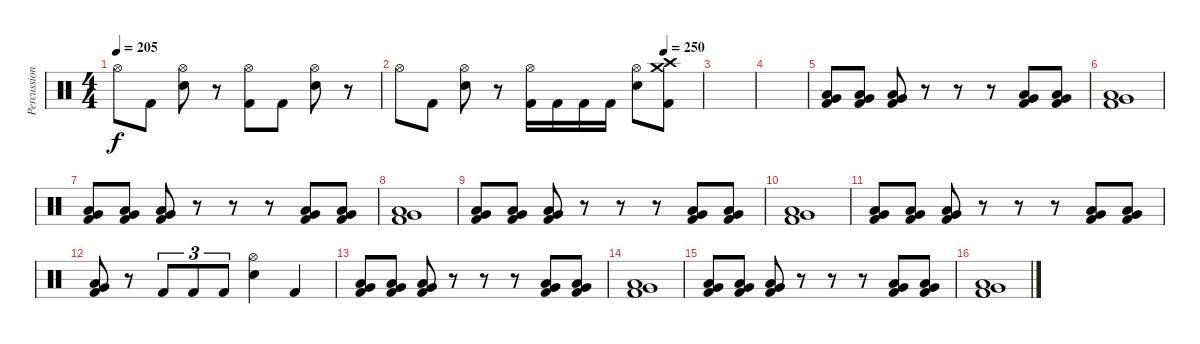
\track ("Percussion" "Percussion") {instrument percussion}
\staff {score}
\articulation defaults
\ts (4 4)
\tempo 205
\clef neutral
\ks c "Hi-Hat (open)".8{dy f} "Kick (hit) 2".8
("Hi-Hat (open)" "Electric Snare (hit)").8 r.8 ("Hi-Hat (open)" "Kick (hit) 2").8 "Kick (hit) 2".8 ("Hi-Hat (open)" "Electric Snare (hit)").8 r.8 |
\tempo (250 0.875)
"Hi-Hat (open)".8 "Kick (hit) 2".8 ("Hi-Hat (open)" "Electric Snare (hit)").8 r.8 ("Hi-Hat (open)" "Kick (hit) 2").16 "Kick (hit) 2".16 "Kick (hit) 2".16 "Kick (hit) 2".16 ("Hi-Hat (open)" "Electric Snare (hit)").8 ("Crash high (hit)" "Crash medium (hit)" "Kick (hit) 2").8 |
|
|
("Low Tom (hit)" "Very Low Tom (hit)" "Kick (hit) 2").8 ("Low Tom (hit)" "Very Low Tom (hit)" "Kick (hit) 2").8 ("Low Tom (hit)" "Very Low Tom (hit)" "Kick (hit) 2").8 r.8 r.8 r.8 ("Low Tom (hit)" "Very Low Tom (hit)" "Kick (hit) 2").8 ("Low Tom (hit)" "Very Low Tom (hit)" "Kick (hit) 2").8 |
("Low Tom (hit)" "Very Low Tom (hit)" "Kick (hit) 2").1 |
("Low Tom (hit)" "Very Low Tom (hit)" "Kick (hit) 2").8 ("Low Tom (hit)" "Very Low Tom (hit)" "Kick (hit) 2").8 ("Low Tom (hit)" "Very Low Tom (hit)" "Kick (hit) 2").8 r.8 r.8 r.8 ("Low Tom (hit)" "Very Low Tom (hit)" "Kick (hit) 2").8 ("Low Tom (hit)" "Very Low Tom (hit)" "Kick (hit) 2").8 |
("Low Tom (hit)" "Very Low Tom (hit)" "Kick (hit) 2").1 |
("Low Tom (hit)" "Very Low Tom (hit)" "Kick (hit) 2").8 ("Low Tom (hit)" "Very Low Tom (hit)" "Kick (hit) 2").8 ("Low Tom (hit)" "Very Low Tom (hit)" "Kick (hit) 2").8 r.8 r.8 r.8 ("Low Tom (hit)" "Very Low Tom (hit)" "Kick (hit) 2").8 ("Low Tom (hit)" "Very Low Tom (hit)" "Kick (hit) 2").8 |
("Low Tom (hit)" "Very Low Tom (hit)" "Kick (hit) 2").1 |
("Low Tom (hit)" "Very Low Tom (hit)" "Kick (hit) 2").8 ("Low Tom (hit)" "Very Low Tom (hit)" "Kick (hit) 2").8 ("Low Tom (hit)" "Very Low Tom (hit)" "Kick (hit) 2").8 r.8 r.8 r.8 ("Low Tom (hit)" "Very Low Tom (hit)" "Kick (hit) 2").8 ("Low Tom (hit)" "Very Low Tom (hit)" "Kick (hit) 2").8 |
("Low Tom (hit)" "Very Low Tom (hit)" "Kick (hit) 2").8 r.8 "Kick (hit) 2".8{tu (3 2)} "Kick (hit) 2".8{tu (3 2)} "Kick (hit) 2".8{tu (3 2)} ("Hi-Hat (open)" "Electric Snare (hit)").4 "Kick (hit) 2".4 |
("Low Tom (hit)" "Very Low Tom (hit)" "Kick (hit) 2").8 ("Low Tom (hit)" "Very Low Tom (hit)" "Kick (hit) 2").8 ("Low Tom (hit)" "Very Low Tom (hit)" "Kick (hit) 2").8 r.8 r.8 r.8 ("Low Tom (hit)" "Very Low Tom (hit)" "Kick (hit) 2").8 ("Low Tom (hit)" "Very Low Tom (hit)" "Kick (hit) 2").8 |
("Low Tom (hit)" "Very Low Tom (hit)" "Kick (hit) 2").1 |
("Low Tom (hit)" "Very Low Tom (hit)" "Kick (hit) 2").8 ("Low Tom (hit)" "Very Low Tom (hit)" "Kick (hit) 2").8 ("Low Tom (hit)" "Very Low Tom (hit)" "Kick (hit) 2").8 r.8 r.8 r.8 ("Low Tom (hit)" "Very Low Tom (hit)" "Kick (hit) 2").8 ("Low Tom (hit)" "Very Low Tom (hit)" "Kick (hit) 2").8 |
("Low Tom (hit)" "Very Low Tom (hit)" "Kick (hit) 2").1
